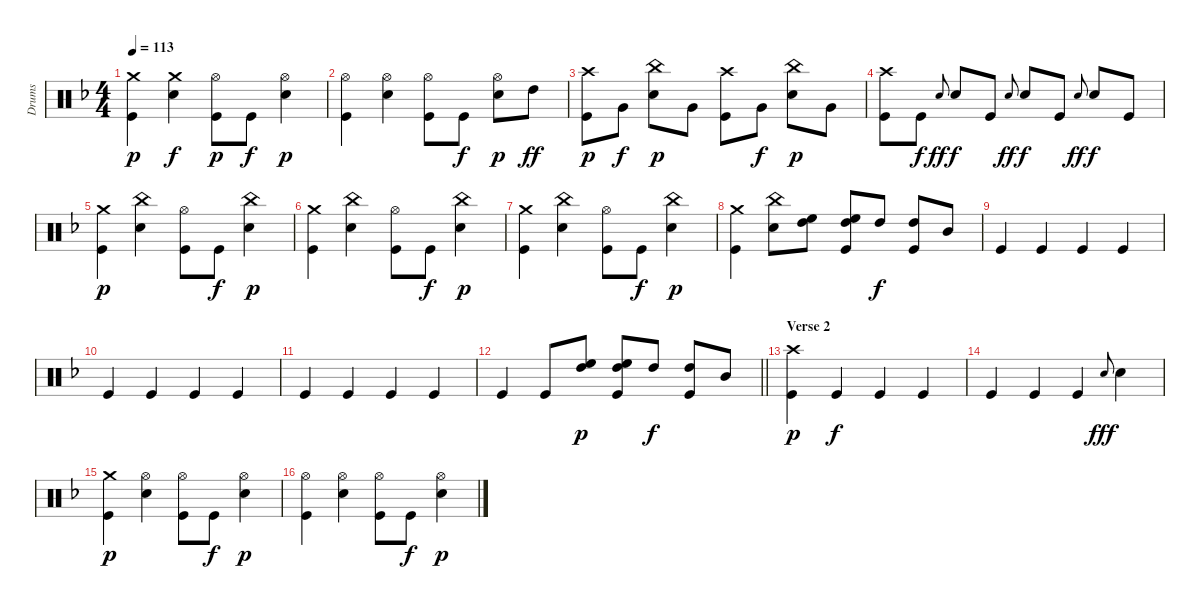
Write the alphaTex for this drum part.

\track ("Drums" "Drums") {instrument percussion}
\staff {score}
\articulation defaults
\ts (4 4)
\tempo 113
\clef neutral
\ks dminor
("Kick (hit)" "Crash medium (hit)").4{dy p} ("Crash medium (hit)" "Electric Snare (hit)").4{dy f} ("Kick (hit)" "Hi-Hat (open)").8{dy p} "Kick (hit)".8{dy f} ("Electric Snare (hit)" "Hi-Hat (open)").4{dy p} |
("Kick (hit)" "Hi-Hat (open)").4 ("Hi-Hat (open)" "Electric Snare (hit)").4 ("Kick (hit)" "Hi-Hat (open)").8 "Kick (hit)".8{dy f} ("Electric Snare (hit)" "Hi-Hat (open)").8{dy p} "High Tom (hit)".8{dy ff} |
("Kick (hit)" "Crash high (hit)").8{dy p} "Very Low Tom (hit)".8{dy f} ("Electric Snare (hit)" "China (hit)").8{dy p} "Very Low Tom (hit)".8 ("Kick (hit)" "Crash high (hit)").8 "Very Low Tom (hit)".8{dy f} ("Electric Snare (hit)" "China (hit)").8{dy p} "Very Low Tom (hit)".8 |
("Kick (hit)" "Crash high (hit)").8 "Kick (hit)".8{dy f} "Electric Snare (hit)".8{gr onbeat dy ff} "Electric Snare (hit)".8{dy f} "Kick (hit)".8 "Electric Snare (hit)".8{gr onbeat dy ff} "Electric Snare (hit)".8{dy f} "Kick (hit)".8 "Electric Snare (hit)".8{gr onbeat dy ff} "Electric Snare (hit)".8{dy f} "Kick (hit)".8 |
("Kick (hit)" "Crash medium (hit)").4{dy p} ("China (hit)" "Electric Snare (hit)").4 ("Kick (hit)" "Hi-Hat (open)").8 "Kick (hit)".8{dy f} ("Electric Snare (hit)" "China (hit)").4{dy p} |
("Kick (hit)" "Crash medium (hit)").4 ("China (hit)" "Electric Snare (hit)").4 ("Kick (hit)" "Hi-Hat (open)").8 "Kick (hit)".8{dy f} ("Electric Snare (hit)" "China (hit)").4{dy p} |
("Kick (hit)" "Crash medium (hit)").4 ("China (hit)" "Electric Snare (hit)").4 ("Kick (hit)" "Hi-Hat (open)").8 "Kick (hit)".8{dy f} ("Electric Snare (hit)" "China (hit)").4{dy p} |
("Kick (hit)" "Crash medium (hit)").4 ("China (hit)" "Electric Snare (hit)").8 ("High Tom (hit)" "High Floor Tom (hit)").8 ("Kick (hit)" "High Floor Tom (hit)" "High Tom (hit)").8 "High Tom (hit)".8{dy f} ("Kick (hit)" "High Tom (hit)").8 "Mid Tom (hit)".8 |
"Kick (hit)".4 "Kick (hit)".4 "Kick (hit)".4 "Kick (hit)".4 |
"Kick (hit)".4 "Kick (hit)".4 "Kick (hit)".4 "Kick (hit)".4 |
"Kick (hit)".4 "Kick (hit)".4 "Kick (hit)".4 "Kick (hit)".4 |
\barLineRight lightlight "Kick (hit)".4 "Kick (hit)".8
("High Tom (hit)" "High Floor Tom (hit)").8{dy p} ("Kick (hit)" "High Floor Tom (hit)" "High Tom (hit)").8 "High Tom (hit)".8{dy f} ("Kick (hit)" "High Tom (hit)").8 "Mid Tom (hit)".8 |
\section ("" "Verse 2")
("Kick (hit)" "Crash high (hit)").4{dy p} "Kick (hit)".4{dy f} "Kick (hit)".4 "Kick (hit)".4 |
"Kick (hit)".4 "Kick (hit)".4 "Kick (hit)".4 "Electric Snare (hit)".8{gr onbeat dy fff} "Electric Snare (hit)".4 |
("Kick (hit)" "Crash medium (hit)").4{dy p} ("Hi-Hat (open)" "Electric Snare (hit)").4 ("Kick (hit)" "Hi-Hat (open)").8 "Kick (hit)".8{dy f} ("Electric Snare (hit)" "Hi-Hat (open)").4{dy p} |
("Kick (hit)" "Hi-Hat (open)").4 ("Hi-Hat (open)" "Electric Snare (hit)").4 ("Kick (hit)" "Hi-Hat (open)").8 "Kick (hit)".8{dy f} ("Electric Snare (hit)" "Hi-Hat (open)").4{dy p}
